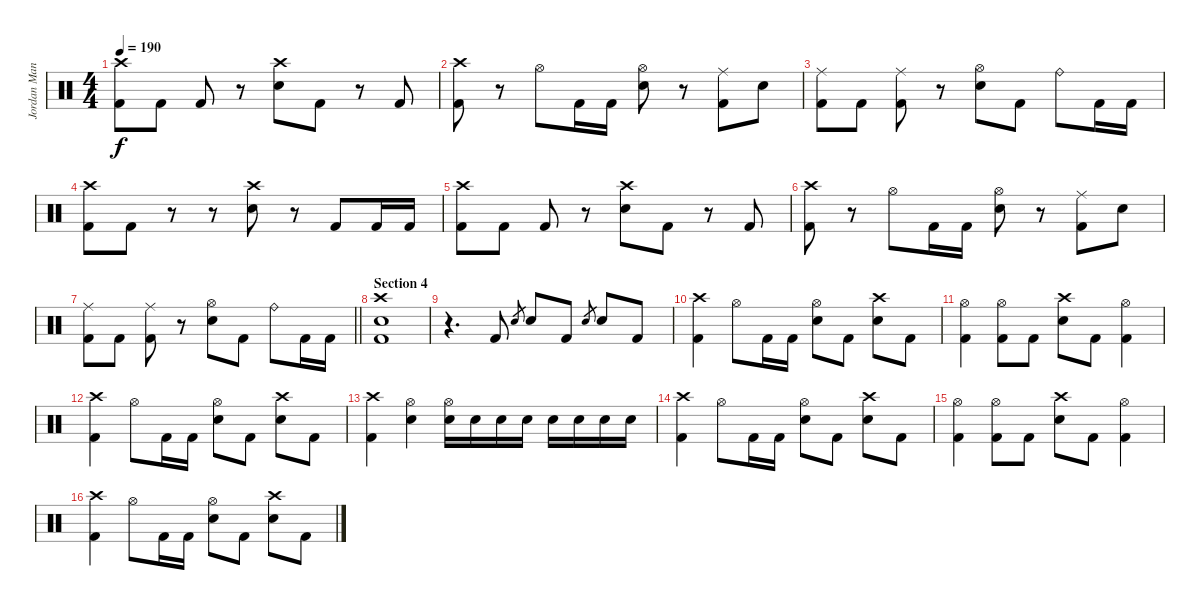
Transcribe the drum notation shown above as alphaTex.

\track ("Jordan Mancino" "Jordan Man") {instrument percussion}
\staff {score}
\articulation defaults
\ts (4 4)
\tempo 190
\clef neutral
\ks c
("Crash high (hit)" "Kick (hit) 2").8{dy f} "Kick (hit) 2".8 "Kick (hit) 2".8 r.8 ("Crash high (hit)" "Electric Snare (hit)").8 "Kick (hit) 2".8 r.8 "Kick (hit) 2".8 |
("Crash high (hit)" "Kick (hit) 2").8 r.8 "Hi-Hat (open)".8 "Kick (hit) 2".16 "Kick (hit) 2".16 ("Hi-Hat (open)" "Electric Snare (hit)").8 r.8 ("Ride (middle)" "Kick (hit) 2").8 "Electric Snare (hit)".8 |
("Ride (middle)" "Kick (hit) 2").8 "Kick (hit) 2".8 ("Ride (middle)" "Kick (hit) 2").8 r.8 ("Hi-Hat (open)" "Electric Snare (hit)").8 "Kick (hit) 2".8 "Ride (bell)".8 "Kick (hit) 2".16 "Kick (hit) 2".16 |
("Crash high (hit)" "Kick (hit) 2").8 "Kick (hit) 2".8 r.8 r.8 ("Crash high (hit)" "Electric Snare (hit)").8 r.8 "Kick (hit) 2".8 "Kick (hit) 2".16 "Kick (hit) 2".16 |
("Crash high (hit)" "Kick (hit) 2").8 "Kick (hit) 2".8 "Kick (hit) 2".8 r.8 ("Crash high (hit)" "Electric Snare (hit)").8 "Kick (hit) 2".8 r.8 "Kick (hit) 2".8 |
("Crash high (hit)" "Kick (hit) 2").8 r.8 "Hi-Hat (open)".8 "Kick (hit) 2".16 "Kick (hit) 2".16 ("Hi-Hat (open)" "Electric Snare (hit)").8 r.8 ("Ride (middle)" "Kick (hit) 2").8 "Electric Snare (hit)".8 |
\barLineRight lightlight
("Ride (middle)" "Kick (hit) 2").8 "Kick (hit) 2".8 ("Ride (middle)" "Kick (hit) 2").8 r.8 ("Hi-Hat (open)" "Electric Snare (hit)").8 "Kick (hit) 2".8 "Ride (bell)".8 "Kick (hit) 2".16 "Kick (hit) 2".16 |
\section ("" "Section 4")
("Crash high (hit)" "Electric Snare (hit)" "Kick (hit) 2").1 |
r.4{d} "Kick (hit) 2".8 "Electric Snare (hit)".8{gr} "Electric Snare (hit)".8 "Kick (hit) 2".8 "Electric Snare (hit)".8{gr} "Electric Snare (hit)".8 "Kick (hit) 2".8 |
("Crash high (hit)" "Kick (hit) 2").4 "Hi-Hat (open)".8 "Kick (hit) 2".16 "Kick (hit) 2".16 ("Hi-Hat (open)" "Electric Snare (hit)").8 "Kick (hit) 2".8 ("Crash high (hit)" "Electric Snare (hit)").8 "Kick (hit) 2".8 |
("Hi-Hat (open)" "Kick (hit) 2").4 ("Hi-Hat (open)" "Kick (hit) 2").8 "Kick (hit) 2".8 ("Crash high (hit)" "Electric Snare (hit)").8 "Kick (hit) 2".8 ("Hi-Hat (open)" "Kick (hit) 2").4 |
("Crash high (hit)" "Kick (hit) 2").4 "Hi-Hat (open)".8 "Kick (hit) 2".16 "Kick (hit) 2".16 ("Hi-Hat (open)" "Electric Snare (hit)").8 "Kick (hit) 2".8 ("Crash high (hit)" "Electric Snare (hit)").8 "Kick (hit) 2".8 |
("Crash high (hit)" "Kick (hit) 2").4 ("Hi-Hat (open)" "Electric Snare (hit)").4 ("Hi-Hat (open)" "Electric Snare (hit)").16 "Electric Snare (hit)".16 "Electric Snare (hit)".16 "Electric Snare (hit)".16 "Electric Snare (hit)".16 "Electric Snare (hit)".16 "Electric Snare (hit)".16 "Electric Snare (hit)".16 |
("Crash high (hit)" "Kick (hit) 2").4 "Hi-Hat (open)".8 "Kick (hit) 2".16 "Kick (hit) 2".16 ("Hi-Hat (open)" "Electric Snare (hit)").8 "Kick (hit) 2".8 ("Crash high (hit)" "Electric Snare (hit)").8 "Kick (hit) 2".8 |
("Hi-Hat (open)" "Kick (hit) 2").4 ("Hi-Hat (open)" "Kick (hit) 2").8 "Kick (hit) 2".8 ("Crash high (hit)" "Electric Snare (hit)").8 "Kick (hit) 2".8 ("Hi-Hat (open)" "Kick (hit) 2").4 |
("Crash high (hit)" "Kick (hit) 2").4 "Hi-Hat (open)".8 "Kick (hit) 2".16 "Kick (hit) 2".16 ("Hi-Hat (open)" "Electric Snare (hit)").8 "Kick (hit) 2".8 ("Crash high (hit)" "Electric Snare (hit)").8 "Kick (hit) 2".8
